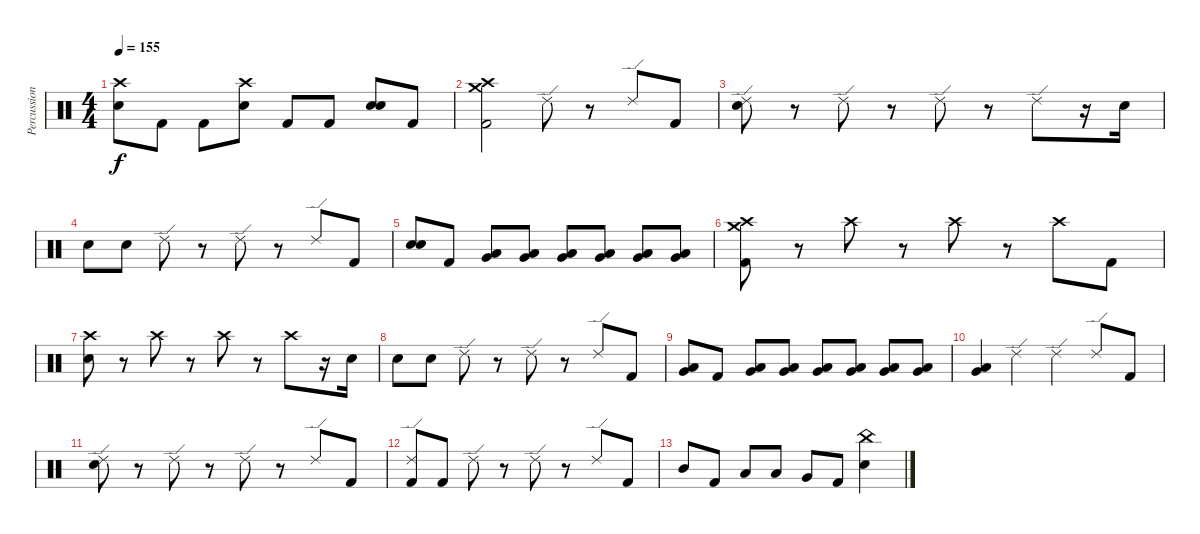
\track ("Percussion" "Percussion") {instrument percussion}
\staff {score}
\articulation defaults
\ts (4 4)
\tempo 155
\clef neutral
\ks c
("Crash high (hit)" "Electric Snare (hit)").8{dy f} "Kick (hit) 2".8 "Kick (hit) 2".8 ("Crash high (hit)" "Electric Snare (hit)").8 "Kick (hit) 2".8 "Kick (hit) 2".8 ("Electric Snare (hit)" "Electric Snare (hit)").8 "Kick (hit) 2".8 |
("Crash medium (hit)" "Crash high (hit)" "Kick (hit) 2").2 "Ride (edge) 2".8 r.8 "Ride (edge) 2".8 "Kick (hit) 2".8 |
("Ride (edge) 2" "Electric Snare (hit)").8 r.8 "Ride (edge) 2".8 r.8 "Ride (edge) 2".8 r.8 "Ride (edge) 2".8 r.16 "Electric Snare (hit)".16 |
"Electric Snare (hit)".8 "Electric Snare (hit)".8 "Ride (edge) 2".8 r.8 "Ride (edge) 2".8 r.8 "Ride (edge) 2".8 "Kick (hit) 2".8 |
("Electric Snare (hit)" "Electric Snare (hit)").8 "Kick (hit) 2".8 ("Low Tom (hit)" "Very Low Tom (hit)").8 ("Low Tom (hit)" "Very Low Tom (hit)").8 ("Low Tom (hit)" "Very Low Tom (hit)").8 ("Low Tom (hit)" "Very Low Tom (hit)").8 ("Low Tom (hit)" "Very Low Tom (hit)").8 ("Low Tom (hit)" "Very Low Tom (hit)").8 |
("Crash medium (hit)" "Crash high (hit)" "Kick (hit) 2").8 r.8 "Crash high (hit)".8 r.8 "Crash high (hit)".8 r.8 "Crash high (hit)".8 "Kick (hit) 2".8 |
("Crash high (hit)" "Electric Snare (hit)").8 r.8 "Crash high (hit)".8 r.8 "Crash high (hit)".8 r.8 "Crash high (hit)".8 r.16 "Electric Snare (hit)".16 |
"Electric Snare (hit)".8 "Electric Snare (hit)".8 "Ride (edge) 2".8 r.8 "Ride (edge) 2".8 r.8 "Ride (edge) 2".8 "Kick (hit) 2".8 |
("Low Floor Tom (hit)" "Very Low Tom (hit)").8 "Kick (hit) 2".8 ("Low Tom (hit)" "Very Low Tom (hit)").8 ("Low Tom (hit)" "Very Low Tom (hit)").8 ("Low Tom (hit)" "Very Low Tom (hit)").8 ("Low Tom (hit)" "Very Low Tom (hit)").8 ("Low Tom (hit)" "Very Low Tom (hit)").8 ("Low Tom (hit)" "Very Low Tom (hit)").8 |
("Low Tom (hit)" "Very Low Tom (hit)").4 "Ride (edge) 2".4 "Ride (edge) 2".4 "Ride (edge) 2".8 "Kick (hit) 2".8 |
("Ride (edge) 2" "Electric Snare (hit)").8 r.8 "Ride (edge) 2".8 r.8 "Ride (edge) 2".8 r.8 "Ride (edge) 2".8 "Kick (hit) 2".8 |
("Ride (edge) 2" "Kick (hit) 2").8 "Kick (hit) 2".8 "Ride (edge) 2".8 r.8 "Ride (edge) 2".8 r.8 "Ride (edge) 2".8 "Kick (hit) 2".8 |
"Mid Tom (hit)".8 "Kick (hit) 2".8 "Low Tom (hit)".8 "Low Tom (hit)".8 "Very Low Tom (hit)".8 "Kick (hit) 2".8 ("China (hit)" "Electric Snare (hit)").4
